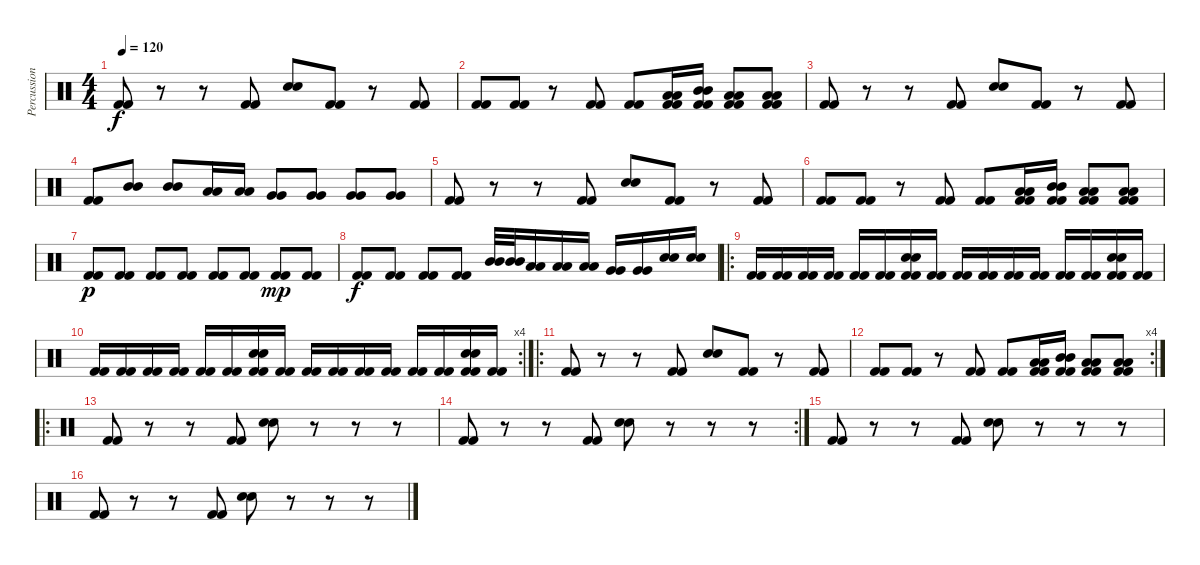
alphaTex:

\track ("Percussion" "Percussion") {instrument percussion}
\staff {score}
\articulation defaults
\ts (4 4)
\tempo 120
\clef neutral
\ks c
("Kick (hit) 2" "Kick (hit) 2").8{dy f} r.8 r.8 ("Kick (hit) 2" "Kick (hit) 2").8 ("Electric Snare (hit)" "Electric Snare (hit)").8 ("Kick (hit) 2" "Kick (hit) 2").8 r.8 ("Kick (hit) 2" "Kick (hit) 2").8 |
("Kick (hit) 2" "Kick (hit) 2").8 ("Kick (hit) 2" "Kick (hit) 2").8 r.8 ("Kick (hit) 2" "Kick (hit) 2").8 ("Kick (hit) 2" "Kick (hit) 2").8 ("Low Tom (hit)" "Low Tom (hit)" "Kick (hit) 2" "Kick (hit) 2").16 ("Mid Tom (hit)" "Mid Tom (hit)" "Kick (hit) 2" "Kick (hit) 2").16 ("Low Tom (hit)" "Low Tom (hit)" "Kick (hit) 2" "Kick (hit) 2").8 ("Low Tom (hit)" "Low Tom (hit)" "Kick (hit) 2" "Kick (hit) 2").8 |
("Kick (hit) 2" "Kick (hit) 2").8 r.8 r.8 ("Kick (hit) 2" "Kick (hit) 2").8 ("Electric Snare (hit)" "Electric Snare (hit)").8 ("Kick (hit) 2" "Kick (hit) 2").8 r.8 ("Kick (hit) 2" "Kick (hit) 2").8 |
("Kick (hit) 2" "Kick (hit) 2").8 ("Mid Tom (hit)" "Mid Tom (hit)").8 ("Mid Tom (hit)" "Mid Tom (hit)").8 ("Low Tom (hit)" "Low Tom (hit)").16 ("Low Tom (hit)" "Low Tom (hit)").16 ("Very Low Tom (hit)" "Very Low Tom (hit)").8 ("Very Low Tom (hit)" "Very Low Tom (hit)").8 ("Very Low Tom (hit)" "Very Low Tom (hit)").8 ("Very Low Tom (hit)" "Very Low Tom (hit)").8 |
("Kick (hit) 2" "Kick (hit) 2").8 r.8 r.8 ("Kick (hit) 2" "Kick (hit) 2").8 ("Electric Snare (hit)" "Electric Snare (hit)").8 ("Kick (hit) 2" "Kick (hit) 2").8 r.8 ("Kick (hit) 2" "Kick (hit) 2").8 |
("Kick (hit) 2" "Kick (hit) 2").8 ("Kick (hit) 2" "Kick (hit) 2").8 r.8 ("Kick (hit) 2" "Kick (hit) 2").8 ("Kick (hit) 2" "Kick (hit) 2").8 ("Low Tom (hit)" "Low Tom (hit)" "Kick (hit) 2" "Kick (hit) 2").16 ("Mid Tom (hit)" "Mid Tom (hit)" "Kick (hit) 2" "Kick (hit) 2").16 ("Low Tom (hit)" "Low Tom (hit)" "Kick (hit) 2" "Kick (hit) 2").8 ("Low Tom (hit)" "Low Tom (hit)" "Kick (hit) 2" "Kick (hit) 2").8 |
("Kick (hit) 2" "Kick (hit) 2").8{dy p} ("Kick (hit) 2" "Kick (hit) 2").8 ("Kick (hit) 2" "Kick (hit) 2").8 ("Kick (hit) 2" "Kick (hit) 2").8 ("Kick (hit) 2" "Kick (hit) 2").8 ("Kick (hit) 2" "Kick (hit) 2").8 ("Kick (hit) 2" "Kick (hit) 2").8{dy mp} ("Kick (hit) 2" "Kick (hit) 2").8 |
("Kick (hit) 2" "Kick (hit) 2").8{dy f} ("Kick (hit) 2" "Kick (hit) 2").8 ("Kick (hit) 2" "Kick (hit) 2").8 ("Kick (hit) 2" "Kick (hit) 2").8 ("Mid Tom (hit)" "Mid Tom (hit)").32 ("Mid Tom (hit)" "Mid Tom (hit)").32 ("Low Tom (hit)" "Low Tom (hit)").16 ("Low Tom (hit)" "Low Tom (hit)").16 ("Low Tom (hit)" "Low Tom (hit)").16 ("Very Low Tom (hit)" "Very Low Tom (hit)").16 ("Very Low Tom (hit)" "Very Low Tom (hit)").16 ("Electric Snare (hit)" "Electric Snare (hit)").16 ("Electric Snare (hit)" "Electric Snare (hit)").16 |
\ro
("Kick (hit) 2" "Kick (hit) 2").16 ("Kick (hit) 2" "Kick (hit) 2").16 ("Kick (hit) 2" "Kick (hit) 2").16 ("Kick (hit) 2" "Kick (hit) 2").16 ("Kick (hit) 2" "Kick (hit) 2").16 ("Kick (hit) 2" "Kick (hit) 2").16 ("Electric Snare (hit)" "Electric Snare (hit)" "Kick (hit) 2" "Kick (hit) 2").16 ("Kick (hit) 2" "Kick (hit) 2").16 ("Kick (hit) 2" "Kick (hit) 2").16 ("Kick (hit) 2" "Kick (hit) 2").16 ("Kick (hit) 2" "Kick (hit) 2").16 ("Kick (hit) 2" "Kick (hit) 2").16 ("Kick (hit) 2" "Kick (hit) 2").16 ("Kick (hit) 2" "Kick (hit) 2").16 ("Electric Snare (hit)" "Electric Snare (hit)" "Kick (hit) 2" "Kick (hit) 2").16 ("Kick (hit) 2" "Kick (hit) 2").16 |
\rc 4
("Kick (hit) 2" "Kick (hit) 2").16 ("Kick (hit) 2" "Kick (hit) 2").16 ("Kick (hit) 2" "Kick (hit) 2").16 ("Kick (hit) 2" "Kick (hit) 2").16 ("Kick (hit) 2" "Kick (hit) 2").16 ("Kick (hit) 2" "Kick (hit) 2").16 ("Electric Snare (hit)" "Electric Snare (hit)" "Kick (hit) 2" "Kick (hit) 2").16 ("Kick (hit) 2" "Kick (hit) 2").16 ("Kick (hit) 2" "Kick (hit) 2").16 ("Kick (hit) 2" "Kick (hit) 2").16 ("Kick (hit) 2" "Kick (hit) 2").16 ("Kick (hit) 2" "Kick (hit) 2").16 ("Kick (hit) 2" "Kick (hit) 2").16 ("Kick (hit) 2" "Kick (hit) 2").16 ("Electric Snare (hit)" "Electric Snare (hit)" "Kick (hit) 2" "Kick (hit) 2").16 ("Kick (hit) 2" "Kick (hit) 2").16 |
\ro
("Kick (hit) 2" "Kick (hit) 2").8 r.8 r.8 ("Kick (hit) 2" "Kick (hit) 2").8 ("Electric Snare (hit)" "Electric Snare (hit)").8 ("Kick (hit) 2" "Kick (hit) 2").8 r.8 ("Kick (hit) 2" "Kick (hit) 2").8 |
\rc 4
("Kick (hit) 2" "Kick (hit) 2").8 ("Kick (hit) 2" "Kick (hit) 2").8 r.8 ("Kick (hit) 2" "Kick (hit) 2").8 ("Kick (hit) 2" "Kick (hit) 2").8 ("Low Tom (hit)" "Low Tom (hit)" "Kick (hit) 2" "Kick (hit) 2").16 ("Mid Tom (hit)" "Mid Tom (hit)" "Kick (hit) 2" "Kick (hit) 2").16 ("Low Tom (hit)" "Low Tom (hit)" "Kick (hit) 2" "Kick (hit) 2").8 ("Low Tom (hit)" "Low Tom (hit)" "Kick (hit) 2" "Kick (hit) 2").8 |
\ro
("Kick (hit) 2" "Kick (hit) 2").8 r.8 r.8 ("Kick (hit) 2" "Kick (hit) 2").8 ("Electric Snare (hit)" "Electric Snare (hit)").8 r.8 r.8 r.8 |
\rc 2
("Kick (hit) 2" "Kick (hit) 2").8 r.8 r.8 ("Kick (hit) 2" "Kick (hit) 2").8 ("Electric Snare (hit)" "Electric Snare (hit)").8 r.8 r.8 r.8 |
("Kick (hit) 2" "Kick (hit) 2").8 r.8 r.8 ("Kick (hit) 2" "Kick (hit) 2").8 ("Electric Snare (hit)" "Electric Snare (hit)").8 r.8 r.8 r.8 |
("Kick (hit) 2" "Kick (hit) 2").8 r.8 r.8 ("Kick (hit) 2" "Kick (hit) 2").8 ("Electric Snare (hit)" "Electric Snare (hit)").8 r.8 r.8 r.8
